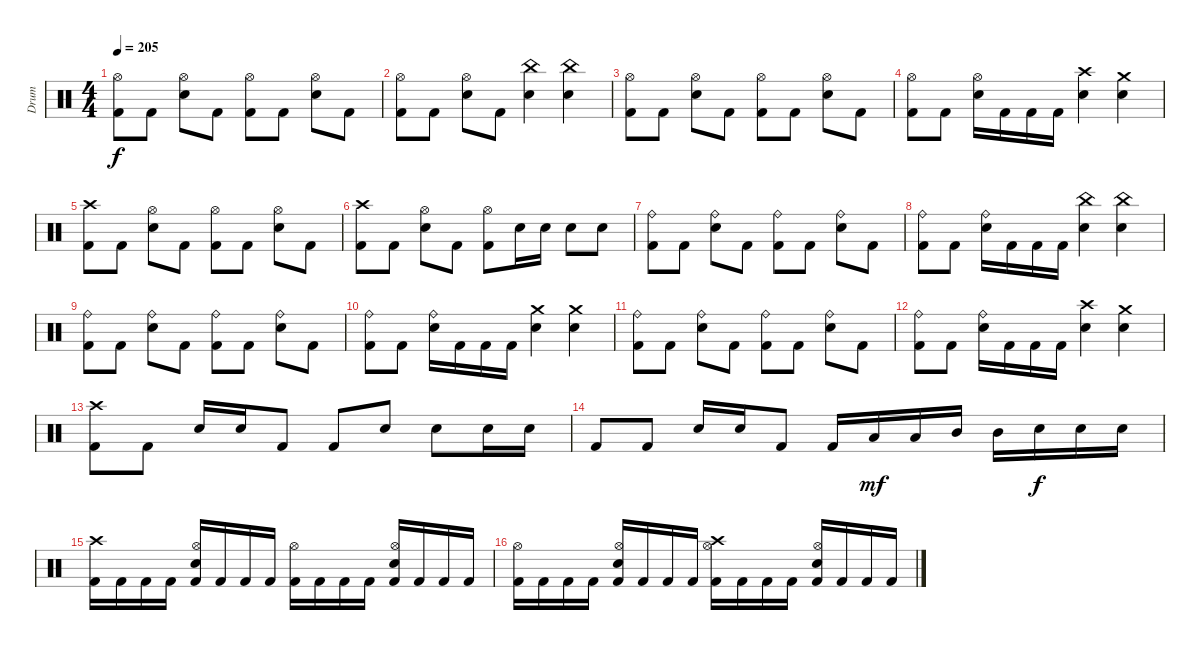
\track ("Drum" "Drum") {instrument percussion}
\staff {score}
\articulation defaults
\ts (4 4)
\tempo 205
\clef neutral
\ks c
("Kick (hit) 2" "Hi-Hat (open)").8{dy f} "Kick (hit) 2".8 ("Electric Snare (hit)" "Hi-Hat (open)").8 "Kick (hit) 2".8 ("Kick (hit) 2" "Hi-Hat (open)").8 "Kick (hit) 2".8 ("Electric Snare (hit)" "Hi-Hat (open)").8 "Kick (hit) 2".8 |
("Kick (hit) 2" "Hi-Hat (open)").8 "Kick (hit) 2".8 ("Electric Snare (hit)" "Hi-Hat (open)").8 "Kick (hit) 2".8 ("Electric Snare (hit)" "China (hit)").4 ("Electric Snare (hit)" "China (hit)").4 |
("Kick (hit) 2" "Hi-Hat (open)").8 "Kick (hit) 2".8 ("Electric Snare (hit)" "Hi-Hat (open)").8 "Kick (hit) 2".8 ("Kick (hit) 2" "Hi-Hat (open)").8 "Kick (hit) 2".8 ("Electric Snare (hit)" "Hi-Hat (open)").8 "Kick (hit) 2".8 |
("Kick (hit) 2" "Hi-Hat (open)").8 "Kick (hit) 2".8 ("Electric Snare (hit)" "Hi-Hat (open)").16 "Kick (hit) 2".16 "Kick (hit) 2".16 "Kick (hit) 2".16 ("Electric Snare (hit)" "Crash high (hit)").4 ("Electric Snare (hit)" "Crash medium (hit)").4 |
("Kick (hit) 2" "Crash high (hit)").8 "Kick (hit) 2".8 ("Electric Snare (hit)" "Hi-Hat (open)").8 "Kick (hit) 2".8 ("Kick (hit) 2" "Hi-Hat (open)").8 "Kick (hit) 2".8 ("Electric Snare (hit)" "Hi-Hat (open)").8 "Kick (hit) 2".8 |
("Kick (hit) 2" "Crash high (hit)").8 "Kick (hit) 2".8 ("Electric Snare (hit)" "Hi-Hat (open)").8 "Kick (hit) 2".8 ("Kick (hit) 2" "Hi-Hat (open)").8 "Electric Snare (hit)".16 "Electric Snare (hit)".16 "Electric Snare (hit)".8 "Electric Snare (hit)".8 |
("Kick (hit) 2" "Ride (bell)").8 "Kick (hit) 2".8 ("Electric Snare (hit)" "Ride (bell)").8 "Kick (hit) 2".8 ("Kick (hit) 2" "Ride (bell)").8 "Kick (hit) 2".8 ("Electric Snare (hit)" "Ride (bell)").8 "Kick (hit) 2".8 |
("Kick (hit) 2" "Ride (bell)").8 "Kick (hit) 2".8 ("Electric Snare (hit)" "Ride (bell)").16 "Kick (hit) 2".16 "Kick (hit) 2".16 "Kick (hit) 2".16 ("Electric Snare (hit)" "China (hit)").4 ("Electric Snare (hit)" "China (hit)").4 |
("Kick (hit) 2" "Ride (bell)").8 "Kick (hit) 2".8 ("Electric Snare (hit)" "Ride (bell)").8 "Kick (hit) 2".8 ("Kick (hit) 2" "Ride (bell)").8 "Kick (hit) 2".8 ("Electric Snare (hit)" "Ride (bell)").8 "Kick (hit) 2".8 |
("Kick (hit) 2" "Ride (bell)").8 "Kick (hit) 2".8 ("Electric Snare (hit)" "Ride (bell)").16 "Kick (hit) 2".16 "Kick (hit) 2".16 "Kick (hit) 2".16 ("Electric Snare (hit)" "Crash medium (hit)").4 ("Electric Snare (hit)" "Crash medium (hit)").4 |
("Kick (hit) 2" "Ride (bell)").8 "Kick (hit) 2".8 ("Electric Snare (hit)" "Ride (bell)").8 "Kick (hit) 2".8 ("Kick (hit) 2" "Ride (bell)").8 "Kick (hit) 2".8 ("Electric Snare (hit)" "Ride (bell)").8 "Kick (hit) 2".8 |
("Kick (hit) 2" "Ride (bell)").8 "Kick (hit) 2".8 ("Electric Snare (hit)" "Ride (bell)").16 "Kick (hit) 2".16 "Kick (hit) 2".16 "Kick (hit) 2".16 ("Electric Snare (hit)" "Crash high (hit)").4 ("Electric Snare (hit)" "Crash medium (hit)").4 |
("Kick (hit) 2" "Crash high (hit)").8 "Kick (hit) 2".8 "Electric Snare (hit)".16 "Electric Snare (hit)".16 "Kick (hit) 2".8 "Kick (hit) 2".8 "Electric Snare (hit)".8 "Electric Snare (hit)".8 "Electric Snare (hit)".16 "Electric Snare (hit)".16 |
"Kick (hit) 2".8 "Kick (hit) 2".8 "Electric Snare (hit)".16 "Electric Snare (hit)".16 "Kick (hit) 2".8 "Kick (hit) 2".16 "Low Tom (hit)".16{dy mf} "Low Tom (hit)".16 "Mid Tom (hit)".16 "Mid Tom (hit)".16 "Electric Snare (hit)".16{dy f} "Electric Snare (hit)".16 "Electric Snare (hit)".16 |
("Kick (hit) 2" "Crash high (hit)").16 "Kick (hit) 2".16 "Kick (hit) 2".16 "Kick (hit) 2".16 ("Kick (hit) 2" "Electric Snare (hit)" "Hi-Hat (open)").16 "Kick (hit) 2".16 "Kick (hit) 2".16 "Kick (hit) 2".16 ("Kick (hit) 2" "Hi-Hat (open)").16 "Kick (hit) 2".16 "Kick (hit) 2".16 "Kick (hit) 2".16 ("Kick (hit) 2" "Electric Snare (hit)" "Hi-Hat (open)").16 "Kick (hit) 2".16 "Kick (hit) 2".16 "Kick (hit) 2".16 |
("Kick (hit) 2" "Hi-Hat (open)").16 "Kick (hit) 2".16 "Kick (hit) 2".16 "Kick (hit) 2".16 ("Kick (hit) 2" "Electric Snare (hit)" "Hi-Hat (open)").16 "Kick (hit) 2".16 "Kick (hit) 2".16 "Kick (hit) 2".16 ("Kick (hit) 2" "Crash high (hit)" "Hi-Hat (open)").16 "Kick (hit) 2".16 "Kick (hit) 2".16 "Kick (hit) 2".16 ("Kick (hit) 2" "Electric Snare (hit)" "Hi-Hat (open)").16 "Kick (hit) 2".16 "Kick (hit) 2".16 "Kick (hit) 2".16
